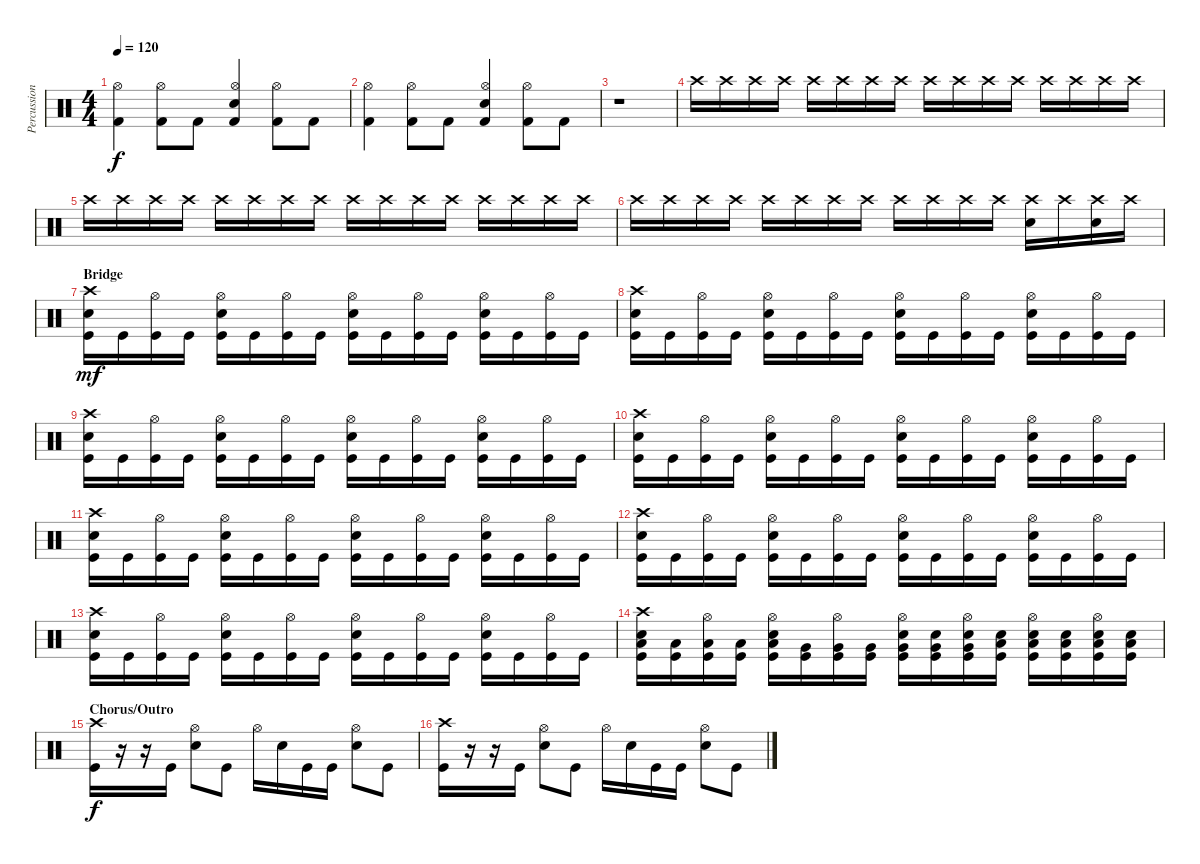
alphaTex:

\track ("Percussion" "Percussion") {instrument percussion}
\staff {score}
\articulation defaults
\ts (4 4)
\tempo 120
\clef neutral
\ks c
("Kick (hit) 2" "Hi-Hat (open)").4{dy f} ("Kick (hit) 2" "Hi-Hat (open)").8 "Kick (hit) 2".8 ("Kick (hit) 2" "Hi-Hat (open)" "Electric Snare (hit)").4 ("Kick (hit) 2" "Hi-Hat (open)").8 "Kick (hit) 2".8 |
("Kick (hit) 2" "Hi-Hat (open)").4 ("Kick (hit) 2" "Hi-Hat (open)").8 "Kick (hit) 2".8 ("Kick (hit) 2" "Hi-Hat (open)" "Electric Snare (hit)").4 ("Kick (hit) 2" "Hi-Hat (open)").8 "Kick (hit) 2".8 |
r.1{volume 0} |
"Crash high (hit)".16{volume 16} "Crash high (hit)".16 "Crash high (hit)".16 "Crash high (hit)".16 "Crash high (hit)".16 "Crash high (hit)".16 "Crash high (hit)".16 "Crash high (hit)".16 "Crash high (hit)".16 "Crash high (hit)".16 "Crash high (hit)".16 "Crash high (hit)".16 "Crash high (hit)".16 "Crash high (hit)".16 "Crash high (hit)".16 "Crash high (hit)".16 |
"Crash high (hit)".16 "Crash high (hit)".16 "Crash high (hit)".16 "Crash high (hit)".16 "Crash high (hit)".16 "Crash high (hit)".16 "Crash high (hit)".16 "Crash high (hit)".16 "Crash high (hit)".16 "Crash high (hit)".16 "Crash high (hit)".16 "Crash high (hit)".16 "Crash high (hit)".16 "Crash high (hit)".16 "Crash high (hit)".16 "Crash high (hit)".16 |
"Crash high (hit)".16 "Crash high (hit)".16 "Crash high (hit)".16 "Crash high (hit)".16 "Crash high (hit)".16 "Crash high (hit)".16 "Crash high (hit)".16 "Crash high (hit)".16 "Crash high (hit)".16 "Crash high (hit)".16 "Crash high (hit)".16 "Crash high (hit)".16 ("Electric Snare (hit)" "Crash high (hit)").16 "Crash high (hit)".16 ("Electric Snare (hit)" "Crash high (hit)").16 "Crash high (hit)".16 |
\section ("" "Bridge")
("Kick (hit)" "Electric Snare (hit)" "Crash high (hit)").16{dy mf} "Kick (hit)".16 ("Kick (hit)" "Hi-Hat (open)").16 "Kick (hit)".16 ("Kick (hit)" "Electric Snare (hit)" "Hi-Hat (open)").16 "Kick (hit)".16 ("Kick (hit)" "Hi-Hat (open)").16 "Kick (hit)".16 ("Kick (hit)" "Electric Snare (hit)" "Hi-Hat (open)").16 "Kick (hit)".16 ("Kick (hit)" "Hi-Hat (open)").16 "Kick (hit)".16 ("Kick (hit)" "Electric Snare (hit)" "Hi-Hat (open)").16 "Kick (hit)".16 ("Kick (hit)" "Hi-Hat (open)").16 "Kick (hit)".16 |
("Kick (hit)" "Electric Snare (hit)" "Crash high (hit)").16 "Kick (hit)".16 ("Kick (hit)" "Hi-Hat (open)").16 "Kick (hit)".16 ("Kick (hit)" "Electric Snare (hit)" "Hi-Hat (open)").16 "Kick (hit)".16 ("Kick (hit)" "Hi-Hat (open)").16 "Kick (hit)".16 ("Kick (hit)" "Electric Snare (hit)" "Hi-Hat (open)").16 "Kick (hit)".16 ("Kick (hit)" "Hi-Hat (open)").16 "Kick (hit)".16 ("Kick (hit)" "Electric Snare (hit)" "Hi-Hat (open)").16 "Kick (hit)".16 ("Kick (hit)" "Hi-Hat (open)").16 "Kick (hit)".16 |
("Kick (hit)" "Electric Snare (hit)" "Crash high (hit)").16 "Kick (hit)".16 ("Kick (hit)" "Hi-Hat (open)").16 "Kick (hit)".16 ("Kick (hit)" "Electric Snare (hit)" "Hi-Hat (open)").16 "Kick (hit)".16 ("Kick (hit)" "Hi-Hat (open)").16 "Kick (hit)".16 ("Kick (hit)" "Electric Snare (hit)" "Hi-Hat (open)").16 "Kick (hit)".16 ("Kick (hit)" "Hi-Hat (open)").16 "Kick (hit)".16 ("Kick (hit)" "Electric Snare (hit)" "Hi-Hat (open)").16 "Kick (hit)".16 ("Kick (hit)" "Hi-Hat (open)").16 "Kick (hit)".16 |
("Kick (hit)" "Electric Snare (hit)" "Crash high (hit)").16 "Kick (hit)".16 ("Kick (hit)" "Hi-Hat (open)").16 "Kick (hit)".16 ("Kick (hit)" "Electric Snare (hit)" "Hi-Hat (open)").16 "Kick (hit)".16 ("Kick (hit)" "Hi-Hat (open)").16 "Kick (hit)".16 ("Kick (hit)" "Electric Snare (hit)" "Hi-Hat (open)").16 "Kick (hit)".16 ("Kick (hit)" "Hi-Hat (open)").16 "Kick (hit)".16 ("Kick (hit)" "Electric Snare (hit)" "Hi-Hat (open)").16 "Kick (hit)".16 ("Kick (hit)" "Hi-Hat (open)").16 "Kick (hit)".16 |
("Kick (hit)" "Electric Snare (hit)" "Crash high (hit)").16 "Kick (hit)".16 ("Kick (hit)" "Hi-Hat (open)").16 "Kick (hit)".16 ("Kick (hit)" "Electric Snare (hit)" "Hi-Hat (open)").16 "Kick (hit)".16 ("Kick (hit)" "Hi-Hat (open)").16 "Kick (hit)".16 ("Kick (hit)" "Electric Snare (hit)" "Hi-Hat (open)").16 "Kick (hit)".16 ("Kick (hit)" "Hi-Hat (open)").16 "Kick (hit)".16 ("Kick (hit)" "Electric Snare (hit)" "Hi-Hat (open)").16 "Kick (hit)".16 ("Kick (hit)" "Hi-Hat (open)").16 "Kick (hit)".16 |
("Kick (hit)" "Electric Snare (hit)" "Crash high (hit)").16 "Kick (hit)".16 ("Kick (hit)" "Hi-Hat (open)").16 "Kick (hit)".16 ("Kick (hit)" "Electric Snare (hit)" "Hi-Hat (open)").16 "Kick (hit)".16 ("Kick (hit)" "Hi-Hat (open)").16 "Kick (hit)".16 ("Kick (hit)" "Electric Snare (hit)" "Hi-Hat (open)").16 "Kick (hit)".16 ("Kick (hit)" "Hi-Hat (open)").16 "Kick (hit)".16 ("Kick (hit)" "Electric Snare (hit)" "Hi-Hat (open)").16 "Kick (hit)".16 ("Kick (hit)" "Hi-Hat (open)").16 "Kick (hit)".16 |
("Kick (hit)" "Electric Snare (hit)" "Crash high (hit)").16 "Kick (hit)".16 ("Kick (hit)" "Hi-Hat (open)").16 "Kick (hit)".16 ("Kick (hit)" "Electric Snare (hit)" "Hi-Hat (open)").16 "Kick (hit)".16 ("Kick (hit)" "Hi-Hat (open)").16 "Kick (hit)".16 ("Kick (hit)" "Electric Snare (hit)" "Hi-Hat (open)").16 "Kick (hit)".16 ("Kick (hit)" "Hi-Hat (open)").16 "Kick (hit)".16 ("Kick (hit)" "Electric Snare (hit)" "Hi-Hat (open)").16 "Kick (hit)".16 ("Kick (hit)" "Hi-Hat (open)").16 "Kick (hit)".16 |
("Kick (hit)" "Electric Snare (hit)" "Low Tom (hit)" "Crash high (hit)").16 ("Kick (hit)" "Low Tom (hit)").16 ("Kick (hit)" "Low Tom (hit)" "Hi-Hat (open)").16 ("Kick (hit)" "Low Tom (hit)").16 ("Kick (hit)" "Electric Snare (hit)" "Low Tom (hit)" "Hi-Hat (open)").16 ("Kick (hit)" "Very Low Tom (hit)").16 ("Kick (hit)" "Very Low Tom (hit)" "Hi-Hat (open)").16 ("Kick (hit)" "Very Low Tom (hit)").16 ("Kick (hit)" "Electric Snare (hit)" "Very Low Tom (hit)" "Hi-Hat (open)").16 ("Kick (hit)" "Electric Snare (hit)" "Very Low Tom (hit)").16 ("Kick (hit)" "Electric Snare (hit)" "Very Low Tom (hit)" "Hi-Hat (open)").16 ("Kick (hit)" "Electric Snare (hit)" "Low Floor Tom (hit)").16 ("Kick (hit)" "Electric Snare (hit)" "Low Floor Tom (hit)" "Hi-Hat (open)").16 ("Kick (hit)" "Electric Snare (hit)" "Low Floor Tom (hit)").16 ("Kick (hit)" "Electric Snare (hit)" "Low Floor Tom (hit)" "Hi-Hat (open)").16 ("Kick (hit)" "Electric Snare (hit)" "Low Floor Tom (hit)").16 |
\section ("" "Chorus/Outro")
("Crash high (hit)" "Kick (hit)").16{dy f} r.16 r.16 "Kick (hit)".16 ("Hi-Hat (open)" "Electric Snare (hit)").8 "Kick (hit)".8 "Hi-Hat (open)".16 "Electric Snare (hit)".16 "Kick (hit)".16 "Kick (hit)".16 ("Hi-Hat (open)" "Electric Snare (hit)").8 "Kick (hit)".8 |
("Crash high (hit)" "Kick (hit)").16 r.16 r.16 "Kick (hit)".16 ("Hi-Hat (open)" "Electric Snare (hit)").8 "Kick (hit)".8 "Hi-Hat (open)".16 "Electric Snare (hit)".16 "Kick (hit)".16 "Kick (hit)".16 ("Hi-Hat (open)" "Electric Snare (hit)").8 "Kick (hit)".8
